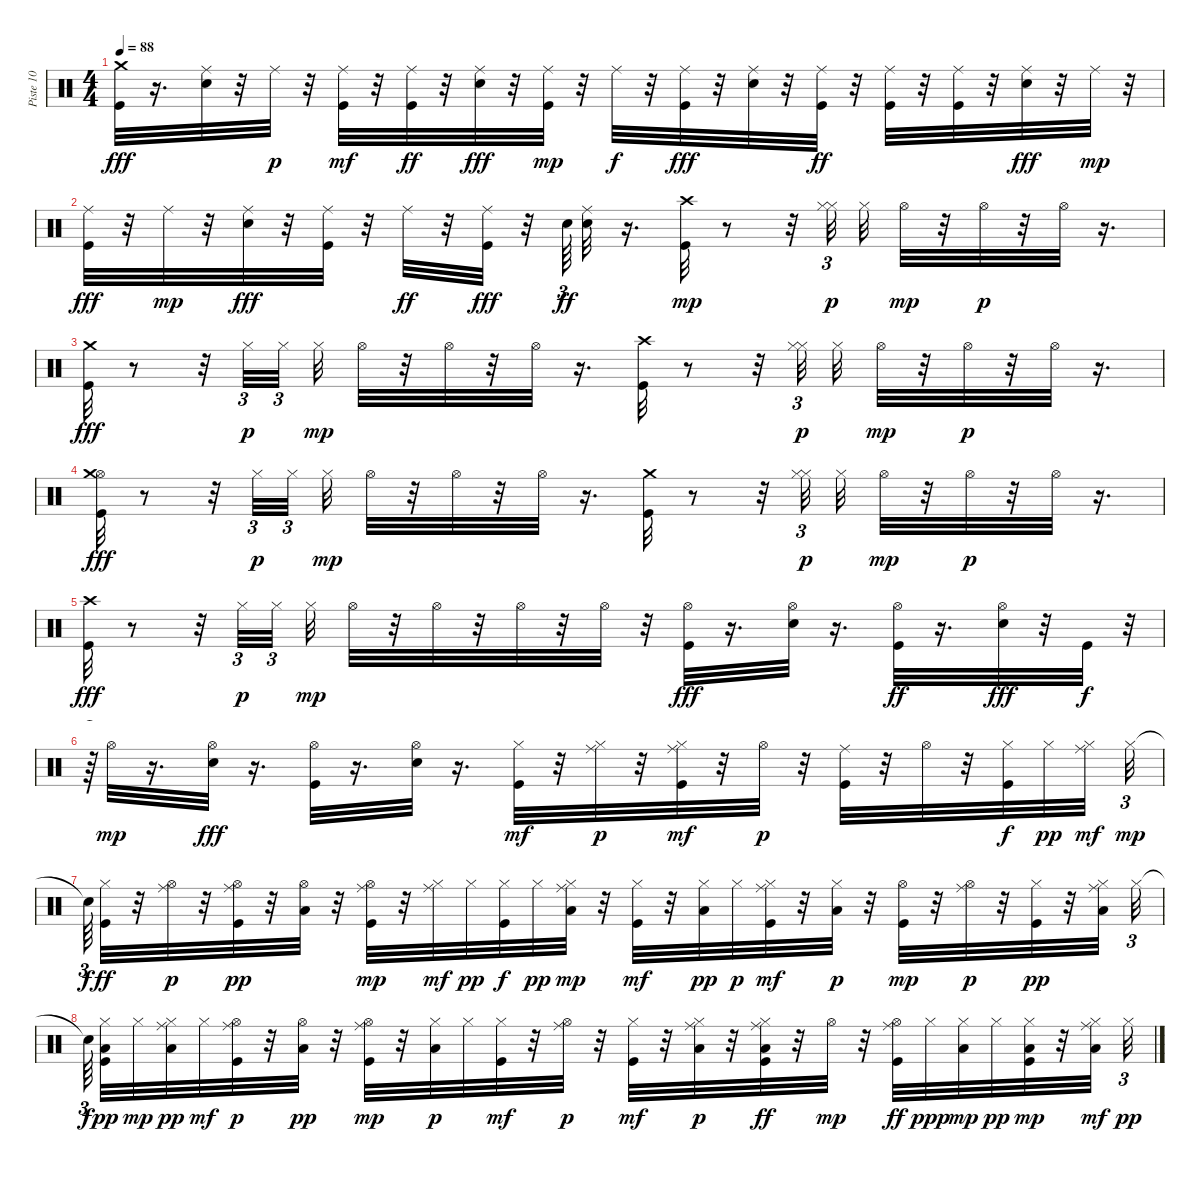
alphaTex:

\track ("Piste 10" "Piste 10") {instrument percussion}
\staff {score}
\articulation defaults
\ts (4 4)
\tempo 88
\clef neutral
\ks c
("Crash medium (hit)" "Kick (hit)").32{dy fff} r.16{d} ("Ride (middle)" "Electric Snare (hit)").32 r.32 "Ride (middle)".32{dy p} r.32 ("Ride (middle)" "Kick (hit)").32{dy mf} r.32 ("Ride (middle)" "Kick (hit)").32{dy ff} r.32 ("Ride (middle)" "Electric Snare (hit)").32{dy fff} r.32 ("Kick (hit)" "Ride (middle)").32{dy mp} r.32 "Ride (middle)".32{dy f} r.32 ("Ride (middle)" "Kick (hit)").32{dy fff} r.32 ("Ride (middle)" "Electric Snare (hit)").32 r.32 ("Ride (middle)" "Kick (hit)").32{dy ff} r.32 ("Ride (middle)" "Kick (hit)").32 r.32 ("Ride (middle)" "Kick (hit)").32 r.32 ("Ride (middle)" "Electric Snare (hit)").32{dy fff} r.32 "Ride (middle)".32{dy mp} r.32 |
("Ride (middle)" "Kick (hit)").32{dy fff} r.32 "Ride (middle)".32{dy mp} r.32 ("Ride (middle)" "Electric Snare (hit)").32{dy fff} r.32 ("Ride (middle)" "Kick (hit)").32 r.32 "Ride (middle)".32{dy ff} r.32 ("Kick (hit)" "Ride (middle)").32{dy fff} r.32 "Electric Snare (hit)".64{tu (3 2) dy ff} ("Electric Snare (hit)" "Ride (middle)").32 r.16{d} ("Kick (hit)" "Crash high (hit)").32{dy mp} r.8 r.32 ("Hi-Hat (closed)" "Hi-Hat (closed)").32{tu (3 2) dy p} "Hi-Hat (closed)".32 "Hi-Hat (open)".32{dy mp} r.32 "Hi-Hat (open)".32{dy p} r.32 "Hi-Hat (open)".32 r.16{d} |
("Crash medium (hit)" "Kick (hit)").32{dy fff} r.8 r.32 "Hi-Hat (closed)".32{tu (3 2) dy p} "Hi-Hat (closed)".32{tu (3 2)} "Hi-Hat (closed)".32{dy mp} "Hi-Hat (open)".32 r.32 "Hi-Hat (open)".32 r.32 "Hi-Hat (open)".32 r.16{d} ("Kick (hit)" "Crash high (hit)").32 r.8 r.32 ("Hi-Hat (closed)" "Hi-Hat (closed)").32{tu (3 2) dy p} "Hi-Hat (closed)".32 "Hi-Hat (open)".32{dy mp} r.32 "Hi-Hat (open)".32{dy p} r.32 "Hi-Hat (open)".32 r.16{d} |
("Hi-Hat (open)" "Crash medium (hit)" "Kick (hit)").32{dy fff} r.8 r.32 "Hi-Hat (closed)".32{tu (3 2) dy p} "Hi-Hat (closed)".32{tu (3 2)} "Hi-Hat (closed)".32{dy mp} "Hi-Hat (open)".32 r.32 "Hi-Hat (open)".32 r.32 "Hi-Hat (open)".32 r.16{d} ("Kick (hit)" "Crash medium (hit)").32 r.8 r.32 ("Hi-Hat (closed)" "Hi-Hat (closed)").32{tu (3 2) dy p} "Hi-Hat (closed)".32 "Hi-Hat (open)".32{dy mp} r.32 "Hi-Hat (open)".32{dy p} r.32 "Hi-Hat (open)".32 r.16{d} |
("Crash high (hit)" "Kick (hit)").32{dy fff} r.8 r.32 "Hi-Hat (closed)".32{tu (3 2) dy p} "Hi-Hat (closed)".32{tu (3 2)} "Hi-Hat (closed)".32{dy mp} "Hi-Hat (open)".32 r.32 "Hi-Hat (open)".32 r.32 "Hi-Hat (open)".32 r.32 "Hi-Hat (open)".32 r.32 ("Hi-Hat (open)" "Kick (hit)").32{dy fff} r.16{d} ("Hi-Hat (open)" "Electric Snare (hit)").32 r.16{d} ("Hi-Hat (open)" "Kick (hit)").32{dy ff} r.16{d} ("Hi-Hat (open)" "Electric Snare (hit)").32{dy fff} r.32 "Kick (hit)".32{dy f} r.32{tu (3 2)} |
r.64{tu (3 2)} "Hi-Hat (open)".32{dy mp} r.16{d} ("Hi-Hat (open)" "Electric Snare (hit)").32{dy fff} r.16{d} ("Hi-Hat (open)" "Kick (hit)").32 r.16{d} ("Hi-Hat (open)" "Electric Snare (hit)").32 r.16{d} ("Hi-Hat (closed)" "Kick (hit)").32{dy mf} r.32 ("Hi-Hat (closed)" "Ride (middle)").32{dy p} r.32 ("Hi-Hat (closed)" "Ride (middle)" "Kick (hit)").32{dy mf} r.32 "Hi-Hat (open)".32{dy p} r.32 ("Ride (middle)" "Kick (hit)").32 r.32 "Hi-Hat (open)".32 r.32 ("Hi-Hat (closed)" "Kick (hit)").32{dy f} "Hi-Hat (closed)".32{dy pp} ("Hi-Hat (closed)" "Ride (middle)").32{dy mf} "Hi-Hat (closed)".32{tu (3 2) dy mp} |
"Snare (hit)"{t}.64{tu (3 2) dy f} ("Hi-Hat (closed)" "Kick (hit)").32{dy ff} r.32 ("Hi-Hat (open)" "Ride (middle)").32{dy p} r.32 ("Ride (middle)" "Hi-Hat (open)" "Kick (hit)").32{dy pp} r.32 ("Hi-Hat (open)" "Low Floor Tom (hit)").32 r.32 ("Ride (middle)" "Hi-Hat (open)" "Kick (hit)").32{dy mp} r.32 ("Hi-Hat (closed)" "Ride (middle)").32{dy mf} "Hi-Hat (closed)".32{dy pp} ("Hi-Hat (closed)" "Kick (hit)").32{dy f} "Hi-Hat (closed)".32{dy pp} ("Hi-Hat (closed)" "Low Floor Tom (hit)" "Ride (middle)").32{dy mp} r.32 ("Hi-Hat (closed)" "Kick (hit)").32{dy mf} r.32 ("Hi-Hat (closed)" "Low Floor Tom (hit)").32{dy pp} "Hi-Hat (closed)".32{dy p} ("Ride (middle)" "Hi-Hat (closed)" "Kick (hit)").32{dy mf} r.32 ("Hi-Hat (closed)" "Low Floor Tom (hit)").32{dy p} r.32 ("Hi-Hat (open)" "Kick (hit)").32{dy mp} r.32 ("Ride (middle)" "Hi-Hat (open)").32{dy p} r.32 ("Hi-Hat (closed)" "Kick (hit)").32{dy pp} r.32 ("Ride (middle)" "Hi-Hat (closed)" "Low Floor Tom (hit)").32 "Hi-Hat (closed)".32{tu (3 2)} |
"Snare (hit)"{t}.64{tu (3 2) dy f} ("Hi-Hat (closed)" "Kick (hit)" "Low Floor Tom (hit)").32{dy pp} "Hi-Hat (closed)".32{dy mp} ("Ride (middle)" "Hi-Hat (closed)" "Low Floor Tom (hit)").32{dy pp} "Hi-Hat (closed)".32{dy mf} ("Ride (middle)" "Hi-Hat (open)" "Kick (hit)").32{dy p} r.32 ("Hi-Hat (open)" "Low Floor Tom (hit)").32{dy pp} r.32 ("Ride (middle)" "Hi-Hat (open)" "Kick (hit)").32{dy mp} r.32 ("Hi-Hat (closed)" "Low Floor Tom (hit)").32{dy p} "Hi-Hat (closed)".32 ("Hi-Hat (closed)" "Kick (hit)").32{dy mf} r.32 ("Ride (middle)" "Hi-Hat (open)").32{dy p} r.32 ("Hi-Hat (closed)" "Kick (hit)").32{dy mf} r.32 ("Hi-Hat (closed)" "Low Floor Tom (hit)" "Ride (middle)").32{dy p} r.32 ("Hi-Hat (closed)" "Low Floor Tom (hit)" "Ride (middle)" "Kick (hit)").32{dy ff} r.32 "Hi-Hat (open)".32{dy mp} r.32 ("Ride (middle)" "Hi-Hat (open)" "Kick (hit)").32{dy ff} "Hi-Hat (closed)".32{dy ppp} ("Hi-Hat (closed)" "Low Floor Tom (hit)").32{dy mp} "Hi-Hat (closed)".32{dy pp} ("Hi-Hat (closed)" "Kick (hit)" "Low Floor Tom (hit)").32{dy mp} r.32 ("Hi-Hat (closed)" "Ride (middle)" "Low Floor Tom (hit)").32{dy mf} "Hi-Hat (closed)".32{tu (3 2) dy pp}
